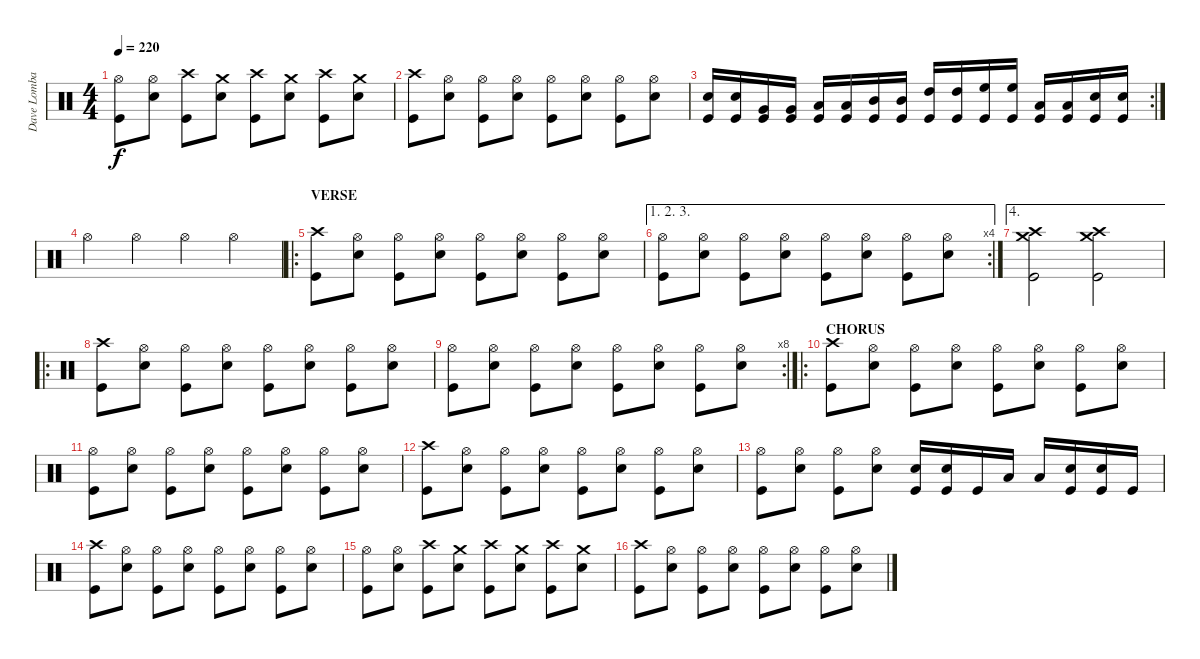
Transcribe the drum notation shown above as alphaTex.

\track ("Dave Lombardo" "Dave Lomba") {instrument percussion}
\staff {score}
\articulation defaults
\ts (4 4)
\tempo 220
\clef neutral
\ks c
("Hi-Hat (open)" "Kick (hit)").8{dy f} ("Hi-Hat (open)" "Snare (hit) 2").8 ("Crash high (hit)" "Kick (hit)").8 ("Crash medium (hit)" "Snare (hit) 2").8 ("Crash high (hit)" "Kick (hit)").8 ("Crash medium (hit)" "Snare (hit) 2").8 ("Crash high (hit)" "Kick (hit)").8 ("Crash medium (hit)" "Snare (hit) 2").8 |
("Crash high (hit)" "Kick (hit)").8 ("Hi-Hat (open)" "Snare (hit) 2").8 ("Hi-Hat (open)" "Kick (hit)").8 ("Hi-Hat (open)" "Snare (hit) 2").8 ("Hi-Hat (open)" "Kick (hit)").8 ("Hi-Hat (open)" "Snare (hit) 2").8 ("Hi-Hat (open)" "Kick (hit)").8 ("Hi-Hat (open)" "Snare (hit) 2").8 |
\rc 2
("Kick (hit)" "Snare (hit) 2").16 ("Kick (hit)" "Snare (hit) 2").16 ("Kick (hit)" "Very Low Tom (hit)").16 ("Kick (hit)" "Very Low Tom (hit)").16 ("Kick (hit)" "Low Tom (hit)").16 ("Kick (hit)" "Low Tom (hit)").16 ("Kick (hit)" "Mid Tom (hit)").16 ("Kick (hit)" "Mid Tom (hit)").16 ("Kick (hit)" "High Tom (hit)").16 ("Kick (hit)" "High Tom (hit)").16 ("Kick (hit)" "High Floor Tom (hit)").16 ("Kick (hit)" "High Floor Tom (hit)").16 ("Kick (hit)" "Low Floor Tom (hit)").16 ("Kick (hit)" "Low Floor Tom (hit)").16 ("Kick (hit)" "Snare (hit) 2").16 ("Kick (hit)" "Snare (hit) 2").16 |
"Hi-Hat (open)".4 "Hi-Hat (open)".4 "Hi-Hat (open)".4 "Hi-Hat (open)".4 |
\ro
\section ("" "VERSE")
("Crash high (hit)" "Kick (hit)").8 ("Hi-Hat (open)" "Snare (hit) 2").8 ("Hi-Hat (open)" "Kick (hit)").8 ("Hi-Hat (open)" "Snare (hit) 2").8 ("Hi-Hat (open)" "Kick (hit)").8 ("Hi-Hat (open)" "Snare (hit) 2").8 ("Hi-Hat (open)" "Kick (hit)").8 ("Hi-Hat (open)" "Snare (hit) 2").8 |
\ae (1 2 3)
\rc 4
("Hi-Hat (open)" "Kick (hit)").8 ("Hi-Hat (open)" "Snare (hit) 2").8 ("Hi-Hat (open)" "Kick (hit)").8 ("Hi-Hat (open)" "Snare (hit) 2").8 ("Hi-Hat (open)" "Kick (hit)").8 ("Hi-Hat (open)" "Snare (hit) 2").8 ("Hi-Hat (open)" "Kick (hit)").8 ("Hi-Hat (open)" "Snare (hit) 2").8 |
\ae 4
("Crash medium (hit)" "Crash high (hit)" "Kick (hit)").2 ("Crash medium (hit)" "Crash high (hit)" "Kick (hit)").2 |
\ro
("Crash high (hit)" "Kick (hit)").8 ("Hi-Hat (open)" "Snare (hit) 2").8 ("Hi-Hat (open)" "Kick (hit)").8 ("Hi-Hat (open)" "Snare (hit) 2").8 ("Hi-Hat (open)" "Kick (hit)").8 ("Hi-Hat (open)" "Snare (hit) 2").8 ("Hi-Hat (open)" "Kick (hit)").8 ("Hi-Hat (open)" "Snare (hit) 2").8 |
\rc 8
("Hi-Hat (open)" "Kick (hit)").8 ("Hi-Hat (open)" "Snare (hit) 2").8 ("Hi-Hat (open)" "Kick (hit)").8 ("Hi-Hat (open)" "Snare (hit) 2").8 ("Hi-Hat (open)" "Kick (hit)").8 ("Hi-Hat (open)" "Snare (hit) 2").8 ("Hi-Hat (open)" "Kick (hit)").8 ("Hi-Hat (open)" "Snare (hit) 2").8 |
\ro
\section ("" "CHORUS")
("Crash high (hit)" "Kick (hit)").8 ("Hi-Hat (open)" "Snare (hit) 2").8 ("Hi-Hat (open)" "Kick (hit)").8 ("Hi-Hat (open)" "Snare (hit) 2").8 ("Hi-Hat (open)" "Kick (hit)").8 ("Hi-Hat (open)" "Snare (hit) 2").8 ("Hi-Hat (open)" "Kick (hit)").8 ("Hi-Hat (open)" "Snare (hit) 2").8 |
("Hi-Hat (open)" "Kick (hit)").8 ("Hi-Hat (open)" "Snare (hit) 2").8 ("Hi-Hat (open)" "Kick (hit)").8 ("Hi-Hat (open)" "Snare (hit) 2").8 ("Hi-Hat (open)" "Kick (hit)").8 ("Hi-Hat (open)" "Snare (hit) 2").8 ("Hi-Hat (open)" "Kick (hit)").8 ("Hi-Hat (open)" "Snare (hit) 2").8 |
("Crash high (hit)" "Kick (hit)").8 ("Hi-Hat (open)" "Snare (hit) 2").8 ("Hi-Hat (open)" "Kick (hit)").8 ("Hi-Hat (open)" "Snare (hit) 2").8 ("Hi-Hat (open)" "Kick (hit)").8 ("Hi-Hat (open)" "Snare (hit) 2").8 ("Hi-Hat (open)" "Kick (hit)").8 ("Hi-Hat (open)" "Snare (hit) 2").8 |
("Hi-Hat (open)" "Kick (hit)").8 ("Hi-Hat (open)" "Snare (hit) 2").8 ("Hi-Hat (open)" "Kick (hit)").8 ("Hi-Hat (open)" "Snare (hit) 2").8 ("Kick (hit)" "Snare (hit) 2").16 ("Kick (hit)" "Snare (hit) 2").16 "Kick (hit)".16 "Low Tom (hit)".16 "Low Tom (hit)".16 ("Kick (hit)" "Snare (hit) 2").16 ("Kick (hit)" "Snare (hit) 2").16 "Kick (hit)".16 |
("Crash high (hit)" "Kick (hit)").8 ("Hi-Hat (open)" "Snare (hit) 2").8 ("Hi-Hat (open)" "Kick (hit)").8 ("Hi-Hat (open)" "Snare (hit) 2").8 ("Hi-Hat (open)" "Kick (hit)").8 ("Hi-Hat (open)" "Snare (hit) 2").8 ("Hi-Hat (open)" "Kick (hit)").8 ("Hi-Hat (open)" "Snare (hit) 2").8 |
("Hi-Hat (open)" "Kick (hit)").8 ("Hi-Hat (open)" "Snare (hit) 2").8 ("Crash high (hit)" "Kick (hit)").8 ("Crash medium (hit)" "Snare (hit) 2").8 ("Crash high (hit)" "Kick (hit)").8 ("Crash medium (hit)" "Snare (hit) 2").8 ("Crash high (hit)" "Kick (hit)").8 ("Crash medium (hit)" "Snare (hit) 2").8 |
("Crash high (hit)" "Kick (hit)").8 ("Hi-Hat (open)" "Snare (hit) 2").8 ("Hi-Hat (open)" "Kick (hit)").8 ("Hi-Hat (open)" "Snare (hit) 2").8 ("Hi-Hat (open)" "Kick (hit)").8 ("Hi-Hat (open)" "Snare (hit) 2").8 ("Hi-Hat (open)" "Kick (hit)").8 ("Hi-Hat (open)" "Snare (hit) 2").8
